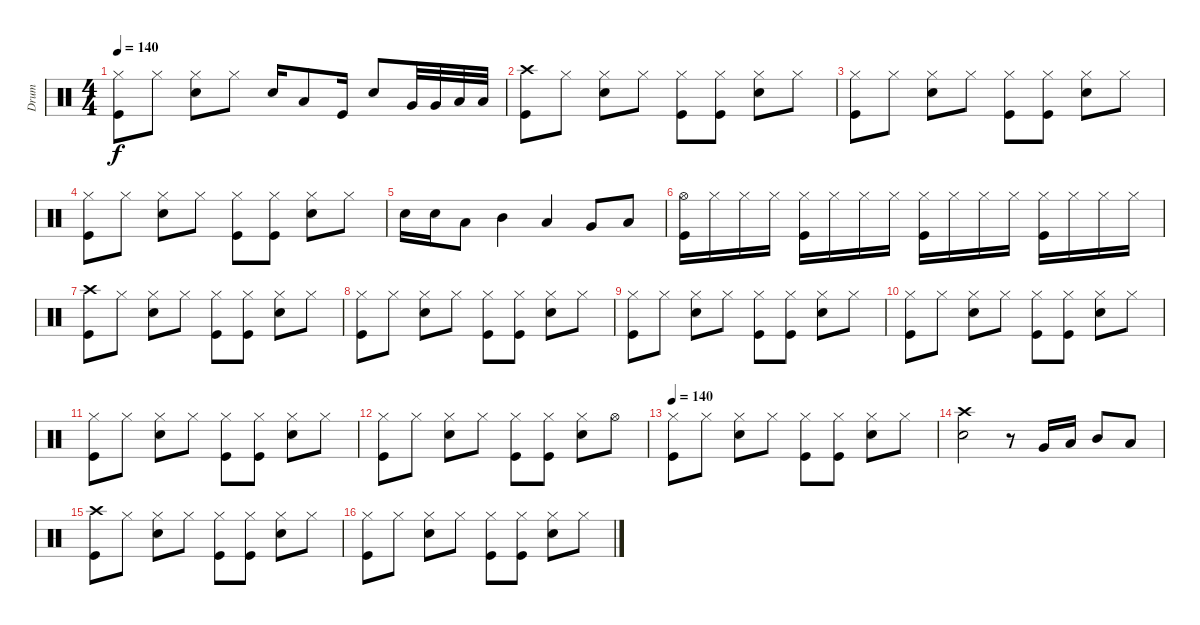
\track ("Drum" "Drum") {instrument percussion}
\staff {score}
\articulation defaults
\ts (4 4)
\tempo 140
\clef neutral
\ks c
("Hi-Hat (closed)" "Kick (hit)").8{dy f} "Hi-Hat (closed)".8 ("Hi-Hat (closed)" "Snare (hit) 2").8 "Hi-Hat (closed)".8 "Snare (hit) 2".16 "Low Floor Tom (hit)".8 "Kick (hit)".16 "Snare (hit) 2".8 "Very Low Tom (hit)".32 "Very Low Tom (hit)".32 "Low Floor Tom (hit)".32 "Low Floor Tom (hit)".32 |
("Crash high (hit)" "Kick (hit)").8 "Hi-Hat (closed)".8 ("Hi-Hat (closed)" "Snare (hit) 2").8 "Hi-Hat (closed)".8 ("Hi-Hat (closed)" "Kick (hit)").8 ("Hi-Hat (closed)" "Kick (hit)").8 ("Hi-Hat (closed)" "Snare (hit) 2").8 "Hi-Hat (closed)".8 |
("Hi-Hat (closed)" "Kick (hit)").8 "Hi-Hat (closed)".8 ("Hi-Hat (closed)" "Snare (hit) 2").8 "Hi-Hat (closed)".8 ("Hi-Hat (closed)" "Kick (hit)").8 ("Hi-Hat (closed)" "Kick (hit)").8 ("Hi-Hat (closed)" "Snare (hit) 2").8 "Hi-Hat (closed)".8 |
("Hi-Hat (closed)" "Kick (hit)").8 "Hi-Hat (closed)".8 ("Hi-Hat (closed)" "Snare (hit) 2").8 "Hi-Hat (closed)".8 ("Hi-Hat (closed)" "Kick (hit)").8 ("Hi-Hat (closed)" "Kick (hit)").8 ("Hi-Hat (closed)" "Snare (hit) 2").8 "Hi-Hat (closed)".8 |
"Snare (hit) 2".16 "Snare (hit) 2".16 "Low Floor Tom (hit)".8 "Mid Tom (hit)".4 "Low Tom (hit)".4 "Very Low Tom (hit)".8 "Low Floor Tom (hit)".8 |
("Hi-Hat (open)" "Kick (hit)").16 "Hi-Hat (closed)".16 "Hi-Hat (closed)".16 "Hi-Hat (closed)".16 ("Hi-Hat (closed)" "Kick (hit)").16 "Hi-Hat (closed)".16 "Hi-Hat (closed)".16 "Hi-Hat (closed)".16 ("Hi-Hat (closed)" "Kick (hit)").16 "Hi-Hat (closed)".16 "Hi-Hat (closed)".16 "Hi-Hat (closed)".16 ("Hi-Hat (closed)" "Kick (hit)").16 "Hi-Hat (closed)".16 "Hi-Hat (closed)".16 "Hi-Hat (closed)".16 |
("Crash high (hit)" "Kick (hit)").8 "Hi-Hat (closed)".8 ("Hi-Hat (closed)" "Snare (hit) 2").8 "Hi-Hat (closed)".8 ("Hi-Hat (closed)" "Kick (hit)").8 ("Hi-Hat (closed)" "Kick (hit)").8 ("Hi-Hat (closed)" "Snare (hit) 2").8 "Hi-Hat (closed)".8 |
("Hi-Hat (closed)" "Kick (hit)").8 "Hi-Hat (closed)".8 ("Hi-Hat (closed)" "Snare (hit) 2").8 "Hi-Hat (closed)".8 ("Hi-Hat (closed)" "Kick (hit)").8 ("Hi-Hat (closed)" "Kick (hit)").8 ("Hi-Hat (closed)" "Snare (hit) 2").8 "Hi-Hat (closed)".8 |
("Hi-Hat (closed)" "Kick (hit)").8 "Hi-Hat (closed)".8 ("Hi-Hat (closed)" "Snare (hit) 2").8 "Hi-Hat (closed)".8 ("Hi-Hat (closed)" "Kick (hit)").8 ("Hi-Hat (closed)" "Kick (hit)").8 ("Hi-Hat (closed)" "Snare (hit) 2").8 "Hi-Hat (closed)".8 |
("Hi-Hat (closed)" "Kick (hit)").8 "Hi-Hat (closed)".8 ("Hi-Hat (closed)" "Snare (hit) 2").8 "Hi-Hat (closed)".8 ("Hi-Hat (closed)" "Kick (hit)").8 ("Hi-Hat (closed)" "Kick (hit)").8 ("Hi-Hat (closed)" "Snare (hit) 2").8 "Hi-Hat (closed)".8 |
("Hi-Hat (closed)" "Kick (hit)").8 "Hi-Hat (closed)".8 ("Hi-Hat (closed)" "Snare (hit) 2").8 "Hi-Hat (closed)".8 ("Hi-Hat (closed)" "Kick (hit)").8 ("Hi-Hat (closed)" "Kick (hit)").8 ("Hi-Hat (closed)" "Snare (hit) 2").8 "Hi-Hat (closed)".8 |
("Hi-Hat (closed)" "Kick (hit)").8 "Hi-Hat (closed)".8 ("Hi-Hat (closed)" "Snare (hit) 2").8 "Hi-Hat (closed)".8 ("Hi-Hat (closed)" "Kick (hit)").8 ("Hi-Hat (closed)" "Kick (hit)").8 ("Hi-Hat (closed)" "Snare (hit) 2").8 "Hi-Hat (open)".8 |
\tempo 140
("Hi-Hat (closed)" "Kick (hit)").8 "Hi-Hat (closed)".8 ("Hi-Hat (closed)" "Snare (hit) 2").8 "Hi-Hat (closed)".8 ("Hi-Hat (closed)" "Kick (hit)").8 ("Hi-Hat (closed)" "Kick (hit)").8 ("Hi-Hat (closed)" "Snare (hit) 2").8 "Hi-Hat (closed)".8 |
("Crash high (hit)" "Electric Snare (hit)").2 r.8 "Very Low Tom (hit)".16 "Low Floor Tom (hit)".16 "Mid Tom (hit)".8 "Low Tom (hit)".8 |
("Crash high (hit)" "Kick (hit)").8 "Hi-Hat (closed)".8 ("Hi-Hat (closed)" "Snare (hit) 2").8 "Hi-Hat (closed)".8 ("Hi-Hat (closed)" "Kick (hit)").8 ("Hi-Hat (closed)" "Kick (hit)").8 ("Hi-Hat (closed)" "Snare (hit) 2").8 "Hi-Hat (closed)".8 |
("Hi-Hat (closed)" "Kick (hit)").8 "Hi-Hat (closed)".8 ("Hi-Hat (closed)" "Snare (hit) 2").8 "Hi-Hat (closed)".8 ("Hi-Hat (closed)" "Kick (hit)").8 ("Hi-Hat (closed)" "Kick (hit)").8 ("Hi-Hat (closed)" "Snare (hit) 2").8 "Hi-Hat (closed)".8
